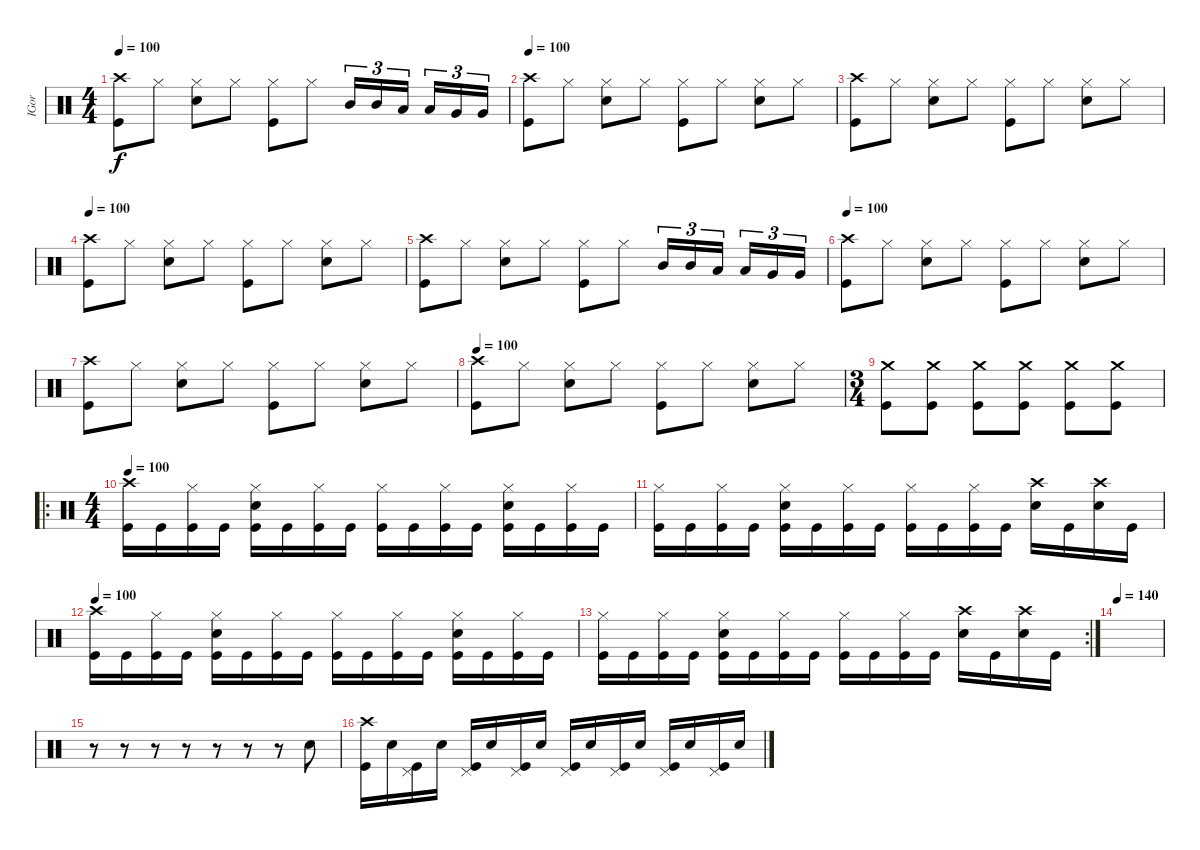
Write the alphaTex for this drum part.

\track ("IGor" "IGor") {instrument percussion}
\staff {score}
\articulation defaults
\ts (4 4)
\tempo 100
\clef neutral
\ks c
("Kick (hit)" "Crash high (hit)").8{dy f} "Hi-Hat (closed)".8 ("Electric Snare (hit)" "Hi-Hat (closed)").8 "Hi-Hat (closed)".8 ("Hi-Hat (closed)" "Kick (hit)").8 "Hi-Hat (closed)".8 "Mid Tom (hit)".16{tu (3 2)} "Mid Tom (hit)".16{tu (3 2)} "Low Tom (hit)".16{tu (3 2)} "Low Tom (hit)".16{tu (3 2)} "Very Low Tom (hit)".16{tu (3 2)} "Very Low Tom (hit)".16{tu (3 2)} |
\tempo 100
("Kick (hit)" "Crash high (hit)").8 "Hi-Hat (closed)".8 ("Electric Snare (hit)" "Hi-Hat (closed)").8 "Hi-Hat (closed)".8 ("Hi-Hat (closed)" "Kick (hit)").8 "Hi-Hat (closed)".8 ("Electric Snare (hit)" "Hi-Hat (closed)").8 "Hi-Hat (closed)".8 |
("Kick (hit)" "Crash high (hit)").8 "Hi-Hat (closed)".8 ("Electric Snare (hit)" "Hi-Hat (closed)").8 "Hi-Hat (closed)".8 ("Hi-Hat (closed)" "Kick (hit)").8 "Hi-Hat (closed)".8 ("Electric Snare (hit)" "Hi-Hat (closed)").8 "Hi-Hat (closed)".8 |
\tempo 100
("Kick (hit)" "Crash high (hit)").8 "Hi-Hat (closed)".8 ("Electric Snare (hit)" "Hi-Hat (closed)").8 "Hi-Hat (closed)".8 ("Hi-Hat (closed)" "Kick (hit)").8 "Hi-Hat (closed)".8 ("Electric Snare (hit)" "Hi-Hat (closed)").8 "Hi-Hat (closed)".8 |
("Kick (hit)" "Crash high (hit)").8 "Hi-Hat (closed)".8 ("Electric Snare (hit)" "Hi-Hat (closed)").8 "Hi-Hat (closed)".8 ("Hi-Hat (closed)" "Kick (hit)").8 "Hi-Hat (closed)".8 "Mid Tom (hit)".16{tu (3 2)} "Mid Tom (hit)".16{tu (3 2)} "Low Tom (hit)".16{tu (3 2)} "Low Tom (hit)".16{tu (3 2)} "Very Low Tom (hit)".16{tu (3 2)} "Very Low Tom (hit)".16{tu (3 2)} |
\tempo 100
("Kick (hit)" "Crash high (hit)").8 "Hi-Hat (closed)".8 ("Electric Snare (hit)" "Hi-Hat (closed)").8 "Hi-Hat (closed)".8 ("Hi-Hat (closed)" "Kick (hit)").8 "Hi-Hat (closed)".8 ("Electric Snare (hit)" "Hi-Hat (closed)").8 "Hi-Hat (closed)".8 |
("Kick (hit)" "Crash high (hit)").8 "Hi-Hat (closed)".8 ("Electric Snare (hit)" "Hi-Hat (closed)").8 "Hi-Hat (closed)".8 ("Hi-Hat (closed)" "Kick (hit)").8 "Hi-Hat (closed)".8 ("Electric Snare (hit)" "Hi-Hat (closed)").8 "Hi-Hat (closed)".8 |
\tempo 100
("Kick (hit)" "Crash high (hit)").8 "Hi-Hat (closed)".8 ("Electric Snare (hit)" "Hi-Hat (closed)").8 "Hi-Hat (closed)".8 ("Hi-Hat (closed)" "Kick (hit)").8 "Hi-Hat (closed)".8 ("Electric Snare (hit)" "Hi-Hat (closed)").8 "Hi-Hat (closed)".8 |
\ts (3 4)
("Kick (hit)" "Crash medium (hit)").8 ("Kick (hit)" "Crash medium (hit)").8 ("Kick (hit)" "Crash medium (hit)").8 ("Kick (hit)" "Crash medium (hit)").8 ("Kick (hit)" "Crash medium (hit)").8 ("Kick (hit)" "Crash medium (hit)").8 |
\ro
\ts (4 4)
\tempo 100
("Kick (hit)" "Crash high (hit)").16 "Kick (hit)".16 ("Hi-Hat (closed)" "Kick (hit)").16 "Kick (hit)".16 ("Hi-Hat (closed)" "Kick (hit)" "Electric Snare (hit)").16 "Kick (hit)".16 ("Hi-Hat (closed)" "Kick (hit)").16 "Kick (hit)".16 ("Hi-Hat (closed)" "Kick (hit)").16 "Kick (hit)".16 ("Hi-Hat (closed)" "Kick (hit)").16 "Kick (hit)".16 ("Hi-Hat (closed)" "Kick (hit)" "Electric Snare (hit)").16 "Kick (hit)".16 ("Hi-Hat (closed)" "Kick (hit)").16 "Kick (hit)".16 |
("Kick (hit)" "Hi-Hat (closed)").16 "Kick (hit)".16 ("Hi-Hat (closed)" "Kick (hit)").16 "Kick (hit)".16 ("Hi-Hat (closed)" "Kick (hit)" "Electric Snare (hit)").16 "Kick (hit)".16 ("Hi-Hat (closed)" "Kick (hit)").16 "Kick (hit)".16 ("Hi-Hat (closed)" "Kick (hit)").16 "Kick (hit)".16 ("Hi-Hat (closed)" "Kick (hit)").16 "Kick (hit)".16 ("Crash high (hit)" "Electric Snare (hit)").16 "Kick (hit)".16 ("Crash high (hit)" "Electric Snare (hit)").16 "Kick (hit)".16 |
\tempo 100
("Kick (hit)" "Crash high (hit)").16 "Kick (hit)".16 ("Hi-Hat (closed)" "Kick (hit)").16 "Kick (hit)".16 ("Hi-Hat (closed)" "Kick (hit)" "Electric Snare (hit)").16 "Kick (hit)".16 ("Hi-Hat (closed)" "Kick (hit)").16 "Kick (hit)".16 ("Hi-Hat (closed)" "Kick (hit)").16 "Kick (hit)".16 ("Hi-Hat (closed)" "Kick (hit)").16 "Kick (hit)".16 ("Hi-Hat (closed)" "Kick (hit)" "Electric Snare (hit)").16 "Kick (hit)".16 ("Hi-Hat (closed)" "Kick (hit)").16 "Kick (hit)".16 |
\rc 2
("Kick (hit)" "Hi-Hat (closed)").16 "Kick (hit)".16 ("Hi-Hat (closed)" "Kick (hit)").16 "Kick (hit)".16 ("Hi-Hat (closed)" "Kick (hit)" "Electric Snare (hit)").16 "Kick (hit)".16 ("Hi-Hat (closed)" "Kick (hit)").16 "Kick (hit)".16 ("Hi-Hat (closed)" "Kick (hit)").16 "Kick (hit)".16 ("Hi-Hat (closed)" "Kick (hit)").16 "Kick (hit)".16 ("Crash high (hit)" "Electric Snare (hit)").16 "Kick (hit)".16 ("Crash high (hit)" "Electric Snare (hit)").16 "Kick (hit)".16 |
\tempo 140
|
r.8 r.8 r.8 r.8 r.8 r.8 r.8 "Electric Snare (hit)".8 |
("Kick (hit)" "Crash high (hit)").16 "Electric Snare (hit)".16 ("Pedal Hi-Hat (hit)" "Kick (hit)").16 "Electric Snare (hit)".16 ("Pedal Hi-Hat (hit)" "Kick (hit)").16 "Electric Snare (hit)".16 ("Pedal Hi-Hat (hit)" "Kick (hit)").16 "Electric Snare (hit)".16 ("Pedal Hi-Hat (hit)" "Kick (hit)").16 "Electric Snare (hit)".16 ("Pedal Hi-Hat (hit)" "Kick (hit)").16 "Electric Snare (hit)".16 ("Pedal Hi-Hat (hit)" "Kick (hit)").16 "Electric Snare (hit)".16 ("Pedal Hi-Hat (hit)" "Kick (hit)").16 "Electric Snare (hit)".16
